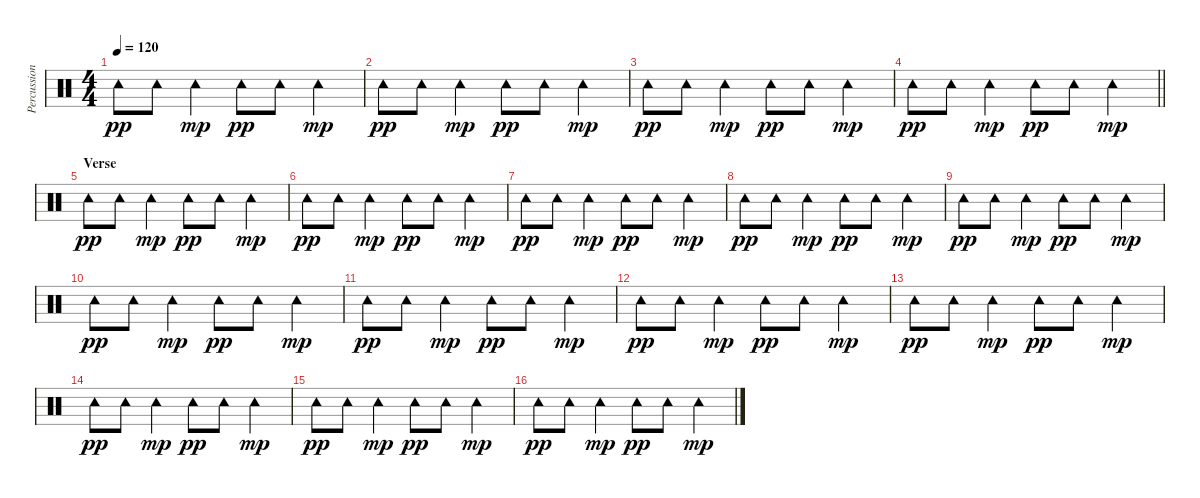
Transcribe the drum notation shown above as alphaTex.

\track ("Percussion" "Percussion") {instrument percussion}
\staff {score}
\articulation defaults
\ts (4 4)
\tempo 120
\clef neutral
\ks c "Tambourine (hit)".8{dy pp} "Tambourine (hit)".8 "Tambourine (hit)".4{dy mp} "Tambourine (hit)".8{dy pp} "Tambourine (hit)".8 "Tambourine (hit)".4{dy mp}
|
"Tambourine (hit)".8{dy pp} "Tambourine (hit)".8 "Tambourine (hit)".4{dy mp} "Tambourine (hit)".8{dy pp} "Tambourine (hit)".8 "Tambourine (hit)".4{dy mp} |
"Tambourine (hit)".8{dy pp} "Tambourine (hit)".8 "Tambourine (hit)".4{dy mp} "Tambourine (hit)".8{dy pp} "Tambourine (hit)".8 "Tambourine (hit)".4{dy mp} |
\barLineRight lightlight "Tambourine (hit)".8{dy pp} "Tambourine (hit)".8 "Tambourine (hit)".4{dy mp} "Tambourine (hit)".8{dy pp} "Tambourine (hit)".8 "Tambourine (hit)".4{dy mp}
|
\section ("" "Verse")
"Tambourine (hit)".8{dy pp} "Tambourine (hit)".8 "Tambourine (hit)".4{dy mp} "Tambourine (hit)".8{dy pp} "Tambourine (hit)".8 "Tambourine (hit)".4{dy mp} |
"Tambourine (hit)".8{dy pp} "Tambourine (hit)".8 "Tambourine (hit)".4{dy mp} "Tambourine (hit)".8{dy pp} "Tambourine (hit)".8 "Tambourine (hit)".4{dy mp} |
"Tambourine (hit)".8{dy pp} "Tambourine (hit)".8 "Tambourine (hit)".4{dy mp} "Tambourine (hit)".8{dy pp} "Tambourine (hit)".8 "Tambourine (hit)".4{dy mp} |
"Tambourine (hit)".8{dy pp} "Tambourine (hit)".8 "Tambourine (hit)".4{dy mp} "Tambourine (hit)".8{dy pp} "Tambourine (hit)".8 "Tambourine (hit)".4{dy mp} |
"Tambourine (hit)".8{dy pp} "Tambourine (hit)".8 "Tambourine (hit)".4{dy mp} "Tambourine (hit)".8{dy pp} "Tambourine (hit)".8 "Tambourine (hit)".4{dy mp} |
"Tambourine (hit)".8{dy pp} "Tambourine (hit)".8 "Tambourine (hit)".4{dy mp} "Tambourine (hit)".8{dy pp} "Tambourine (hit)".8 "Tambourine (hit)".4{dy mp} |
"Tambourine (hit)".8{dy pp} "Tambourine (hit)".8 "Tambourine (hit)".4{dy mp} "Tambourine (hit)".8{dy pp} "Tambourine (hit)".8 "Tambourine (hit)".4{dy mp} |
"Tambourine (hit)".8{dy pp} "Tambourine (hit)".8 "Tambourine (hit)".4{dy mp} "Tambourine (hit)".8{dy pp} "Tambourine (hit)".8 "Tambourine (hit)".4{dy mp} |
"Tambourine (hit)".8{dy pp} "Tambourine (hit)".8 "Tambourine (hit)".4{dy mp} "Tambourine (hit)".8{dy pp} "Tambourine (hit)".8 "Tambourine (hit)".4{dy mp} |
"Tambourine (hit)".8{dy pp} "Tambourine (hit)".8 "Tambourine (hit)".4{dy mp} "Tambourine (hit)".8{dy pp} "Tambourine (hit)".8 "Tambourine (hit)".4{dy mp} |
"Tambourine (hit)".8{dy pp} "Tambourine (hit)".8 "Tambourine (hit)".4{dy mp} "Tambourine (hit)".8{dy pp} "Tambourine (hit)".8 "Tambourine (hit)".4{dy mp} |
"Tambourine (hit)".8{dy pp} "Tambourine (hit)".8 "Tambourine (hit)".4{dy mp} "Tambourine (hit)".8{dy pp} "Tambourine (hit)".8 "Tambourine (hit)".4{dy mp}
